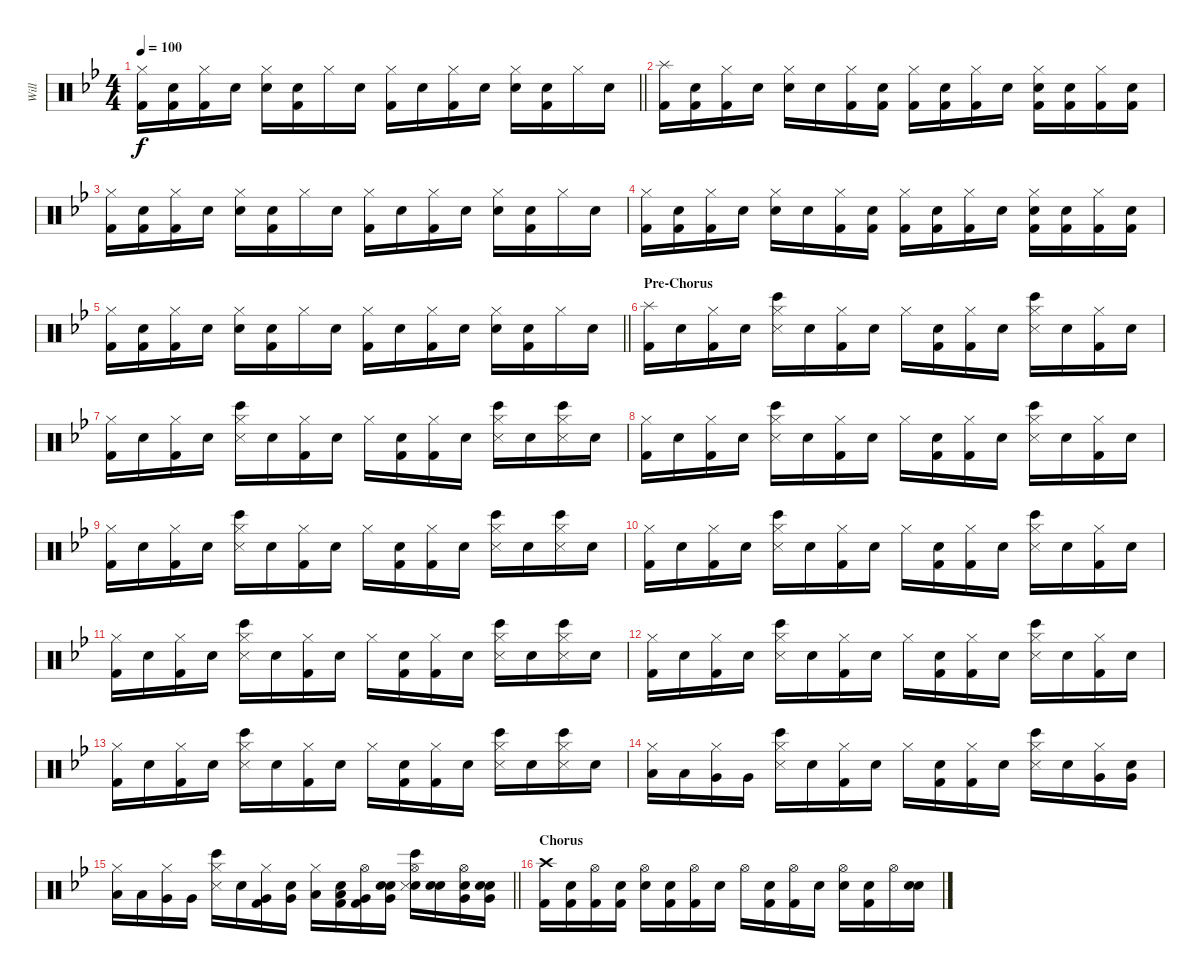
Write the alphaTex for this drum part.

\track ("Will" "Will") {instrument percussion}
\staff {score}
\articulation defaults
\ts (4 4)
\tempo 100
\clef neutral
\barLineRight lightlight
\ks bb
("Hi-Hat (closed)" "Kick (hit) 2").16{dy f} ("Snare (hit)" "Kick (hit) 2").16 ("Hi-Hat (closed)" "Kick (hit) 2").16 "Snare (hit)".16 ("Hi-Hat (closed)" "Electric Snare (hit)").16 ("Snare (hit)" "Kick (hit) 2").16 "Hi-Hat (closed)".16 "Snare (hit)".16 ("Hi-Hat (closed)" "Kick (hit) 2").16 "Snare (hit)".16 ("Hi-Hat (closed)" "Kick (hit) 2").16 "Snare (hit)".16 ("Hi-Hat (closed)" "Electric Snare (hit)").16 ("Snare (hit)" "Kick (hit) 2").16 "Hi-Hat (closed)".16 "Snare (hit)".16 |
("Splash (hit)" "Kick (hit) 2").16 ("Snare (hit)" "Kick (hit) 2").16 ("Hi-Hat (closed)" "Kick (hit) 2").16 "Snare (hit)".16 ("Hi-Hat (closed)" "Electric Snare (hit)").16 "Snare (hit)".16 ("Hi-Hat (closed)" "Kick (hit) 2").16 ("Snare (hit)" "Kick (hit) 2").16 ("Hi-Hat (closed)" "Kick (hit) 2").16 ("Snare (hit)" "Kick (hit) 2").16 ("Hi-Hat (closed)" "Kick (hit) 2").16 "Snare (hit)".16 ("Hi-Hat (closed)" "Electric Snare (hit)" "Kick (hit) 2").16 ("Snare (hit)" "Kick (hit) 2").16 ("Hi-Hat (closed)" "Kick (hit) 2").16 ("Snare (hit)" "Kick (hit) 2").16 |
("Hi-Hat (closed)" "Kick (hit) 2").16 ("Snare (hit)" "Kick (hit) 2").16 ("Hi-Hat (closed)" "Kick (hit) 2").16 "Snare (hit)".16 ("Hi-Hat (closed)" "Electric Snare (hit)").16 ("Snare (hit)" "Kick (hit) 2").16 "Hi-Hat (closed)".16 "Snare (hit)".16 ("Hi-Hat (closed)" "Kick (hit) 2").16 "Snare (hit)".16 ("Hi-Hat (closed)" "Kick (hit) 2").16 "Snare (hit)".16 ("Hi-Hat (closed)" "Electric Snare (hit)").16 ("Snare (hit)" "Kick (hit) 2").16 "Hi-Hat (closed)".16 "Snare (hit)".16 |
("Hi-Hat (closed)" "Kick (hit) 2").16 ("Snare (hit)" "Kick (hit) 2").16 ("Hi-Hat (closed)" "Kick (hit) 2").16 "Snare (hit)".16 ("Hi-Hat (closed)" "Electric Snare (hit)").16 "Snare (hit)".16 ("Hi-Hat (closed)" "Kick (hit) 2").16 ("Snare (hit)" "Kick (hit) 2").16 ("Hi-Hat (closed)" "Kick (hit) 2").16 ("Snare (hit)" "Kick (hit) 2").16 ("Hi-Hat (closed)" "Kick (hit) 2").16 "Snare (hit)".16 ("Hi-Hat (closed)" "Electric Snare (hit)" "Kick (hit) 2").16 ("Snare (hit)" "Kick (hit) 2").16 ("Hi-Hat (closed)" "Kick (hit) 2").16 ("Snare (hit)" "Kick (hit) 2").16 |
\barLineRight lightlight
("Hi-Hat (closed)" "Kick (hit) 2").16 ("Snare (hit)" "Kick (hit) 2").16 ("Hi-Hat (closed)" "Kick (hit) 2").16 "Snare (hit)".16 ("Hi-Hat (closed)" "Electric Snare (hit)").16 ("Snare (hit)" "Kick (hit) 2").16 "Hi-Hat (closed)".16 "Snare (hit)".16 ("Hi-Hat (closed)" "Kick (hit) 2").16 "Snare (hit)".16 ("Hi-Hat (closed)" "Kick (hit) 2").16 "Snare (hit)".16 ("Hi-Hat (closed)" "Electric Snare (hit)").16 ("Snare (hit)" "Kick (hit) 2").16 "Hi-Hat (closed)".16 "Snare (hit)".16 |
\section ("" "Pre-Chorus")
("Splash (hit)" "Kick (hit) 2").16{volume 11} "Snare (hit)".16 ("Hi-Hat (closed)" "Kick (hit) 2").16 "Snare (hit)".16 ("Hi-Hat (closed)" "Bongo High (hit)" "Snare (side stick) 3").16 "Snare (hit)".16 ("Hi-Hat (closed)" "Kick (hit) 2").16 "Snare (hit)".16 "Hi-Hat (closed)".16 ("Snare (hit)" "Kick (hit) 2").16 ("Hi-Hat (closed)" "Kick (hit) 2").16 "Snare (hit)".16 ("Hi-Hat (closed)" "Bongo High (hit)" "Snare (side stick) 3").16 "Snare (hit)".16 ("Hi-Hat (closed)" "Kick (hit) 2").16 "Snare (hit)".16 |
("Hi-Hat (closed)" "Kick (hit) 2").16 "Snare (hit)".16 ("Hi-Hat (closed)" "Kick (hit) 2").16 "Snare (hit)".16 ("Hi-Hat (closed)" "Bongo High (hit)" "Snare (side stick) 3").16 "Snare (hit)".16 ("Hi-Hat (closed)" "Kick (hit) 2").16 "Snare (hit)".16 "Hi-Hat (closed)".16 ("Snare (hit)" "Kick (hit) 2").16 ("Hi-Hat (closed)" "Kick (hit) 2").16 "Snare (hit)".16 ("Hi-Hat (closed)" "Bongo High (hit)" "Snare (side stick) 3").16 "Snare (hit)".16 ("Hi-Hat (closed)" "Bongo High (hit)" "Snare (side stick) 3").16 "Snare (hit)".16 |
("Hi-Hat (closed)" "Kick (hit) 2").16{volume 11} "Snare (hit)".16 ("Hi-Hat (closed)" "Kick (hit) 2").16 "Snare (hit)".16 ("Hi-Hat (closed)" "Bongo High (hit)" "Snare (side stick) 3").16 "Snare (hit)".16 ("Hi-Hat (closed)" "Kick (hit) 2").16 "Snare (hit)".16 "Hi-Hat (closed)".16 ("Snare (hit)" "Kick (hit) 2").16 ("Hi-Hat (closed)" "Kick (hit) 2").16 "Snare (hit)".16 ("Hi-Hat (closed)" "Bongo High (hit)" "Snare (side stick) 3").16 "Snare (hit)".16 ("Hi-Hat (closed)" "Kick (hit) 2").16 "Snare (hit)".16 |
("Hi-Hat (closed)" "Kick (hit) 2").16 "Snare (hit)".16 ("Hi-Hat (closed)" "Kick (hit) 2").16 "Snare (hit)".16 ("Hi-Hat (closed)" "Bongo High (hit)" "Snare (side stick) 3").16 "Snare (hit)".16 ("Hi-Hat (closed)" "Kick (hit) 2").16 "Snare (hit)".16 "Hi-Hat (closed)".16 ("Snare (hit)" "Kick (hit) 2").16 ("Hi-Hat (closed)" "Kick (hit) 2").16 "Snare (hit)".16 ("Hi-Hat (closed)" "Bongo High (hit)" "Snare (side stick) 3").16 "Snare (hit)".16 ("Hi-Hat (closed)" "Bongo High (hit)" "Snare (side stick) 3").16 "Snare (hit)".16 |
("Hi-Hat (closed)" "Kick (hit) 2").16{volume 11} "Snare (hit)".16 ("Hi-Hat (closed)" "Kick (hit) 2").16 "Snare (hit)".16 ("Hi-Hat (closed)" "Bongo High (hit)" "Snare (side stick) 3").16 "Snare (hit)".16 ("Hi-Hat (closed)" "Kick (hit) 2").16 "Snare (hit)".16 "Hi-Hat (closed)".16 ("Snare (hit)" "Kick (hit) 2").16 ("Hi-Hat (closed)" "Kick (hit) 2").16 "Snare (hit)".16 ("Hi-Hat (closed)" "Bongo High (hit)" "Snare (side stick) 3").16 "Snare (hit)".16 ("Hi-Hat (closed)" "Kick (hit) 2").16 "Snare (hit)".16 |
("Hi-Hat (closed)" "Kick (hit) 2").16 "Snare (hit)".16 ("Hi-Hat (closed)" "Kick (hit) 2").16 "Snare (hit)".16 ("Hi-Hat (closed)" "Bongo High (hit)" "Snare (side stick) 3").16 "Snare (hit)".16 ("Hi-Hat (closed)" "Kick (hit) 2").16 "Snare (hit)".16 "Hi-Hat (closed)".16 ("Snare (hit)" "Kick (hit) 2").16 ("Hi-Hat (closed)" "Kick (hit) 2").16 "Snare (hit)".16 ("Hi-Hat (closed)" "Bongo High (hit)" "Snare (side stick) 3").16 "Snare (hit)".16 ("Hi-Hat (closed)" "Bongo High (hit)" "Snare (side stick) 3").16 "Snare (hit)".16 |
("Hi-Hat (closed)" "Kick (hit) 2").16{volume 11} "Snare (hit)".16 ("Hi-Hat (closed)" "Kick (hit) 2").16 "Snare (hit)".16 ("Hi-Hat (closed)" "Bongo High (hit)" "Snare (side stick) 3").16 "Snare (hit)".16 ("Hi-Hat (closed)" "Kick (hit) 2").16 "Snare (hit)".16 "Hi-Hat (closed)".16 ("Snare (hit)" "Kick (hit) 2").16 ("Hi-Hat (closed)" "Kick (hit) 2").16 "Snare (hit)".16 ("Hi-Hat (closed)" "Bongo High (hit)" "Snare (side stick) 3").16 "Snare (hit)".16 ("Hi-Hat (closed)" "Kick (hit) 2").16 "Snare (hit)".16 |
("Hi-Hat (closed)" "Kick (hit) 2").16 "Snare (hit)".16 ("Hi-Hat (closed)" "Kick (hit) 2").16 "Snare (hit)".16 ("Hi-Hat (closed)" "Bongo High (hit)" "Snare (side stick) 3").16 "Snare (hit)".16 ("Hi-Hat (closed)" "Kick (hit) 2").16 "Snare (hit)".16 "Hi-Hat (closed)".16 ("Snare (hit)" "Kick (hit) 2").16 ("Hi-Hat (closed)" "Kick (hit) 2").16 "Snare (hit)".16 ("Hi-Hat (closed)" "Bongo High (hit)" "Snare (side stick) 3").16 "Snare (hit)".16 ("Hi-Hat (closed)" "Bongo High (hit)" "Snare (side stick) 3").16 "Snare (hit)".16 |
("Hi-Hat (closed)" "Low Tom (hit)").16{volume 13} "Low Tom (hit)".16 ("Hi-Hat (closed)" "Very Low Tom (hit)").16 "Very Low Tom (hit)".16 ("Hi-Hat (closed)" "Bongo High (hit)" "Snare (side stick) 3").16 "Snare (hit)".16 ("Hi-Hat (closed)" "Kick (hit) 2").16 "Snare (hit)".16 "Hi-Hat (closed)".16 ("Snare (hit)" "Kick (hit) 2").16 ("Hi-Hat (closed)" "Kick (hit) 2").16 "Snare (hit)".16 ("Hi-Hat (closed)" "Snare (side stick) 3" "Bongo High (hit)").16 "Snare (hit)".16 ("Hi-Hat (closed)" "Very Low Tom (hit)").16 ("Snare (hit)" "Very Low Tom (hit)").16 |
\barLineRight lightlight
("Hi-Hat (closed)" "Low Tom (hit)").16{volume 13} "Low Tom (hit)".16 ("Hi-Hat (closed)" "Very Low Tom (hit)").16 "Very Low Tom (hit)".16 ("Hi-Hat (closed)" "Bongo High (hit)" "Snare (side stick) 3").16 "Snare (hit)".16 ("Hi-Hat (closed)" "Very Low Tom (hit)" "Kick (hit) 2").16 ("Snare (hit)" "Very Low Tom (hit)").16 ("Hi-Hat (closed)" "Low Tom (hit)").16 ("Snare (hit)" "Low Tom (hit)" "Kick (hit) 2").16 ("Hi-Hat (open)" "Very Low Tom (hit)" "Kick (hit) 2").16 ("Snare (hit)" "Electric Snare (hit)" "Very Low Tom (hit)").16 ("Hi-Hat (open)" "Electric Snare (hit)" "Snare (side stick) 3" "Bongo High (hit)").16 ("Snare (hit)" "Electric Snare (hit)").16 ("Hi-Hat (open)" "Electric Snare (hit)" "Very Low Tom (hit)").16 ("Snare (hit)" "Electric Snare (hit)" "Very Low Tom (hit)").16 |
\section ("" "Chorus")
("Crash high (hit)" "Kick (hit) 2").16 ("Snare (hit)" "Kick (hit) 2").16 ("Hi-Hat (open)" "Kick (hit) 2").16 ("Snare (hit)" "Kick (hit) 2").16 ("Hi-Hat (open)" "Electric Snare (hit)").16 ("Snare (hit)" "Kick (hit) 2").16 ("Hi-Hat (open)" "Kick (hit) 2").16 "Snare (hit)".16 "Hi-Hat (open)".16 ("Snare (hit)" "Kick (hit) 2").16 ("Hi-Hat (open)" "Kick (hit) 2").16 "Snare (hit)".16 ("Hi-Hat (open)" "Electric Snare (hit)").16 ("Snare (hit)" "Kick (hit) 2").16 "Hi-Hat (open)".16 ("Snare (hit)" "Electric Snare (hit)").16
